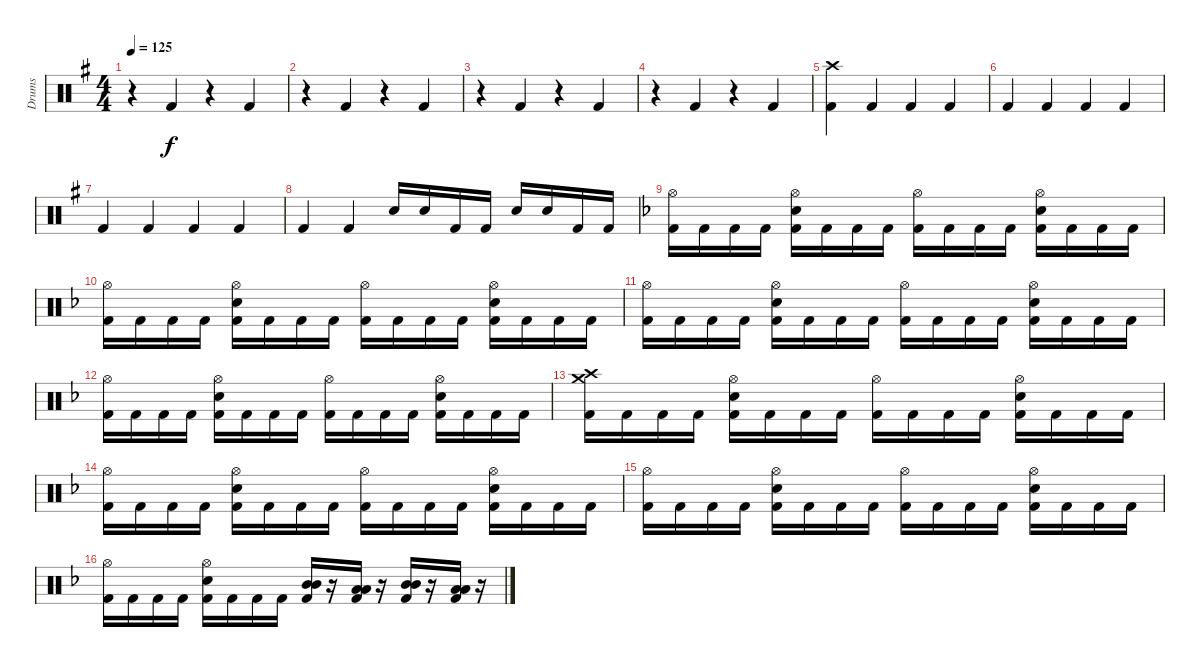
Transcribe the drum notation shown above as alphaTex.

\track ("Drums" "Drums") {instrument percussion}
\staff {score}
\articulation defaults
\ts (4 4)
\tempo 125
\clef neutral
\ks g
r.4{dy f} "Kick (hit) 2".4 r.4 "Kick (hit) 2".4 |
r.4 "Kick (hit) 2".4 r.4 "Kick (hit) 2".4 |
r.4 "Kick (hit) 2".4 r.4 "Kick (hit) 2".4 |
r.4 "Kick (hit) 2".4 r.4 "Kick (hit) 2".4 |
("Crash high (hit)" "Kick (hit) 2").4 "Kick (hit) 2".4 "Kick (hit) 2".4 "Kick (hit) 2".4 |
"Kick (hit) 2".4 "Kick (hit) 2".4 "Kick (hit) 2".4 "Kick (hit) 2".4 |
"Kick (hit) 2".4 "Kick (hit) 2".4 "Kick (hit) 2".4 "Kick (hit) 2".4 |
"Kick (hit) 2".4 "Kick (hit) 2".4 "Snare (hit) 2".16 "Snare (hit) 2".16 "Kick (hit) 2".16 "Kick (hit) 2".16 "Snare (hit) 2".16 "Snare (hit) 2".16 "Kick (hit) 2".16 "Kick (hit) 2".16 |
\ks f
("Hi-Hat (open)" "Kick (hit) 2").16 "Kick (hit) 2".16 "Kick (hit) 2".16 "Kick (hit) 2".16 ("Hi-Hat (open)" "Snare (hit) 2" "Kick (hit) 2").16 "Kick (hit) 2".16 "Kick (hit) 2".16 "Kick (hit) 2".16 ("Hi-Hat (open)" "Kick (hit) 2").16 "Kick (hit) 2".16 "Kick (hit) 2".16 "Kick (hit) 2".16 ("Hi-Hat (open)" "Snare (hit) 2" "Kick (hit) 2").16 "Kick (hit) 2".16 "Kick (hit) 2".16 "Kick (hit) 2".16 |
("Hi-Hat (open)" "Kick (hit) 2").16 "Kick (hit) 2".16 "Kick (hit) 2".16 "Kick (hit) 2".16 ("Hi-Hat (open)" "Snare (hit) 2" "Kick (hit) 2").16 "Kick (hit) 2".16 "Kick (hit) 2".16 "Kick (hit) 2".16 ("Hi-Hat (open)" "Kick (hit) 2").16 "Kick (hit) 2".16 "Kick (hit) 2".16 "Kick (hit) 2".16 ("Hi-Hat (open)" "Snare (hit) 2" "Kick (hit) 2").16 "Kick (hit) 2".16 "Kick (hit) 2".16 "Kick (hit) 2".16 |
("Hi-Hat (open)" "Kick (hit) 2").16 "Kick (hit) 2".16 "Kick (hit) 2".16 "Kick (hit) 2".16 ("Hi-Hat (open)" "Snare (hit) 2" "Kick (hit) 2").16 "Kick (hit) 2".16 "Kick (hit) 2".16 "Kick (hit) 2".16 ("Hi-Hat (open)" "Kick (hit) 2").16 "Kick (hit) 2".16 "Kick (hit) 2".16 "Kick (hit) 2".16 ("Hi-Hat (open)" "Snare (hit) 2" "Kick (hit) 2").16 "Kick (hit) 2".16 "Kick (hit) 2".16 "Kick (hit) 2".16 |
("Hi-Hat (open)" "Kick (hit) 2").16 "Kick (hit) 2".16 "Kick (hit) 2".16 "Kick (hit) 2".16 ("Hi-Hat (open)" "Snare (hit) 2" "Kick (hit) 2").16 "Kick (hit) 2".16 "Kick (hit) 2".16 "Kick (hit) 2".16 ("Hi-Hat (open)" "Kick (hit) 2").16 "Kick (hit) 2".16 "Kick (hit) 2".16 "Kick (hit) 2".16 ("Hi-Hat (open)" "Snare (hit) 2" "Kick (hit) 2").16 "Kick (hit) 2".16 "Kick (hit) 2".16 "Kick (hit) 2".16 |
("Crash medium (hit)" "Crash high (hit)" "Kick (hit) 2").16 "Kick (hit) 2".16 "Kick (hit) 2".16 "Kick (hit) 2".16 ("Hi-Hat (open)" "Snare (hit) 2" "Kick (hit) 2").16 "Kick (hit) 2".16 "Kick (hit) 2".16 "Kick (hit) 2".16 ("Hi-Hat (open)" "Kick (hit) 2").16 "Kick (hit) 2".16 "Kick (hit) 2".16 "Kick (hit) 2".16 ("Hi-Hat (open)" "Snare (hit) 2" "Kick (hit) 2").16 "Kick (hit) 2".16 "Kick (hit) 2".16 "Kick (hit) 2".16 |
("Hi-Hat (open)" "Kick (hit) 2").16 "Kick (hit) 2".16 "Kick (hit) 2".16 "Kick (hit) 2".16 ("Hi-Hat (open)" "Snare (hit) 2" "Kick (hit) 2").16 "Kick (hit) 2".16 "Kick (hit) 2".16 "Kick (hit) 2".16 ("Hi-Hat (open)" "Kick (hit) 2").16 "Kick (hit) 2".16 "Kick (hit) 2".16 "Kick (hit) 2".16 ("Hi-Hat (open)" "Snare (hit) 2" "Kick (hit) 2").16 "Kick (hit) 2".16 "Kick (hit) 2".16 "Kick (hit) 2".16 |
("Hi-Hat (open)" "Kick (hit) 2").16 "Kick (hit) 2".16 "Kick (hit) 2".16 "Kick (hit) 2".16 ("Hi-Hat (open)" "Snare (hit) 2" "Kick (hit) 2").16 "Kick (hit) 2".16 "Kick (hit) 2".16 "Kick (hit) 2".16 ("Hi-Hat (open)" "Kick (hit) 2").16 "Kick (hit) 2".16 "Kick (hit) 2".16 "Kick (hit) 2".16 ("Hi-Hat (open)" "Snare (hit) 2" "Kick (hit) 2").16 "Kick (hit) 2".16 "Kick (hit) 2".16 "Kick (hit) 2".16 |
("Hi-Hat (open)" "Kick (hit) 2").16 "Kick (hit) 2".16 "Kick (hit) 2".16 "Kick (hit) 2".16 ("Hi-Hat (open)" "Snare (hit) 2" "Kick (hit) 2").16 "Kick (hit) 2".16 "Kick (hit) 2".16 "Kick (hit) 2".16 ("Mid Tom (hit)" "Mid Tom (hit)" "Kick (hit) 2").16 r.16 ("Low Tom (hit)" "Low Tom (hit)" "Kick (hit) 2").16 r.16 ("Mid Tom (hit)" "Mid Tom (hit)" "Kick (hit) 2").16 r.16 ("Low Tom (hit)" "Low Tom (hit)" "Kick (hit) 2").16 r.16
